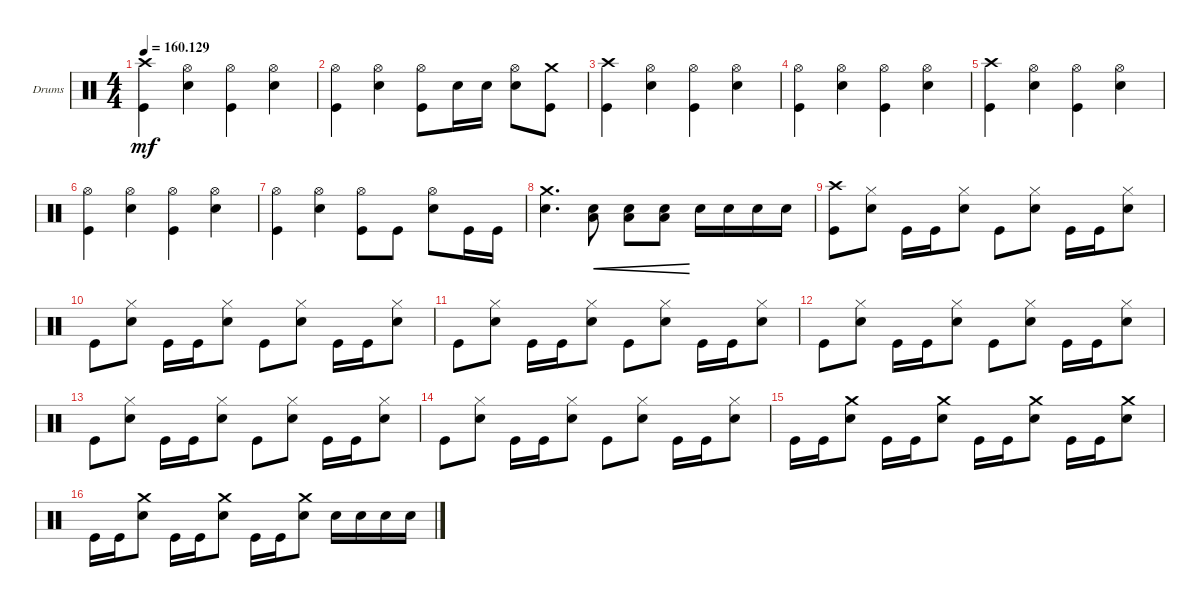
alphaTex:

\defaultSystemsLayout 4
\bracketExtendMode groupsimilarinstruments
\firstSystemTrackNameOrientation horizontal
\otherSystemsTrackNameOrientation horizontal
\track ("Drumkit" "Drums") {instrument percussion}
\staff {score}
\articulation defaults
\ts (4 4)
\tempo
160.129
\accidentals auto
\clef neutral
\ottava regular
\simile none
\ks c
("Kick (hit)" "Crash high (hit)").4{dy mf} ("Hi-Hat (open)" "Snare (hit) 2").4 ("Hi-Hat (open)" "Kick (hit)").4 ("Snare (hit) 2" "Hi-Hat (open)").4 |
("Kick (hit)" "Hi-Hat (open)").4 ("Hi-Hat (open)" "Snare (hit) 2").4 ("Kick (hit)" "Hi-Hat (open)").8 "Snare (hit) 2".16 "Snare (hit) 2".16 ("Snare (hit) 2" "Hi-Hat (open)").8 ("Kick (hit)" "Crash medium (hit)").8 |
("Kick (hit)" "Crash high (hit)").4 ("Snare (hit) 2" "Hi-Hat (open)").4 ("Kick (hit)" "Hi-Hat (open)").4 ("Snare (hit) 2" "Hi-Hat (open)").4 |
("Kick (hit)" "Hi-Hat (open)").4 ("Snare (hit) 2" "Hi-Hat (open)").4 ("Kick (hit)" "Hi-Hat (open)").4 ("Snare (hit) 2" "Hi-Hat (open)").4 |
("Kick (hit)" "Crash high (hit)").4 ("Snare (hit) 2" "Hi-Hat (open)").4 ("Kick (hit)" "Hi-Hat (open)").4 ("Snare (hit) 2" "Hi-Hat (open)").4 |
("Kick (hit)" "Hi-Hat (open)").4 ("Snare (hit) 2" "Hi-Hat (open)").4 ("Kick (hit)" "Hi-Hat (open)").4 ("Snare (hit) 2" "Hi-Hat (open)").4 |
("Kick (hit)" "Hi-Hat (open)").4 ("Hi-Hat (open)" "Snare (hit) 2").4 ("Hi-Hat (open)" "Kick (hit)").8 "Kick (hit)".8 ("Snare (hit) 2" "Hi-Hat (open)").8 "Kick (hit)".16 "Kick (hit)".16 |
("Snare (hit) 2" "Crash medium (hit)").4{d} ("Low Tom (hit)" "Snare (hit) 2").8{cre} ("Low Tom (hit)" "Snare (hit) 2").8{cre} ("Low Tom (hit)" "Snare (hit) 2").8{cre} "Snare (hit) 2".16 "Snare (hit) 2".16 "Snare (hit) 2".16 "Snare (hit) 2".16 |
("Kick (hit)" "Crash high (hit)").8 ("Snare (hit) 2" "Hi-Hat (closed)").8 "Kick (hit)".16 "Kick (hit)".16 ("Snare (hit) 2" "Hi-Hat (closed)").8 "Kick (hit)".8 ("Snare (hit) 2" "Hi-Hat (closed)").8 "Kick (hit)".16 "Kick (hit)".16 ("Snare (hit) 2" "Hi-Hat (closed)").8 |
"Kick (hit)".8 ("Snare (hit) 2" "Hi-Hat (closed)").8 "Kick (hit)".16 "Kick (hit)".16 ("Snare (hit) 2" "Hi-Hat (closed)").8 "Kick (hit)".8 ("Snare (hit) 2" "Hi-Hat (closed)").8 "Kick (hit)".16 "Kick (hit)".16 ("Snare (hit) 2" "Hi-Hat (closed)").8 |
"Kick (hit)".8 ("Snare (hit) 2" "Hi-Hat (closed)").8 "Kick (hit)".16 "Kick (hit)".16 ("Snare (hit) 2" "Hi-Hat (closed)").8 "Kick (hit)".8 ("Snare (hit) 2" "Hi-Hat (closed)").8 "Kick (hit)".16 "Kick (hit)".16 ("Snare (hit) 2" "Hi-Hat (closed)").8 |
"Kick (hit)".8 ("Snare (hit) 2" "Hi-Hat (closed)").8 "Kick (hit)".16 "Kick (hit)".16 ("Snare (hit) 2" "Hi-Hat (closed)").8 "Kick (hit)".8 ("Snare (hit) 2" "Hi-Hat (closed)").8 "Kick (hit)".16 "Kick (hit)".16 ("Snare (hit) 2" "Hi-Hat (closed)").8 |
"Kick (hit)".8 ("Snare (hit) 2" "Hi-Hat (closed)").8 "Kick (hit)".16 "Kick (hit)".16 ("Snare (hit) 2" "Hi-Hat (closed)").8 "Kick (hit)".8 ("Snare (hit) 2" "Hi-Hat (closed)").8 "Kick (hit)".16 "Kick (hit)".16 ("Snare (hit) 2" "Hi-Hat (closed)").8 |
"Kick (hit)".8 ("Snare (hit) 2" "Hi-Hat (closed)").8 "Kick (hit)".16 "Kick (hit)".16 ("Snare (hit) 2" "Hi-Hat (closed)").8 "Kick (hit)".8 ("Snare (hit) 2" "Hi-Hat (closed)").8 "Kick (hit)".16 "Kick (hit)".16 ("Snare (hit) 2" "Hi-Hat (closed)").8 |
"Kick (hit)".16 "Kick (hit)".16 ("Snare (hit) 2" "Crash medium (hit)").8 "Kick (hit)".16 "Kick (hit)".16 ("Snare (hit) 2" "Crash medium (hit)").8 "Kick (hit)".16 "Kick (hit)".16 ("Snare (hit) 2" "Crash medium (hit)").8 "Kick (hit)".16 "Kick (hit)".16 ("Snare (hit) 2" "Crash medium (hit)").8 |
"Kick (hit)".16 "Kick (hit)".16 ("Snare (hit) 2" "Crash medium (hit)").8 "Kick (hit)".16 "Kick (hit)".16 ("Snare (hit) 2" "Crash medium (hit)").8 "Kick (hit)".16 "Kick (hit)".16 ("Snare (hit) 2" "Crash medium (hit)").8 "Snare (hit) 2".16 "Snare (hit) 2".16 "Snare (hit) 2".16 "Snare (hit) 2".16
